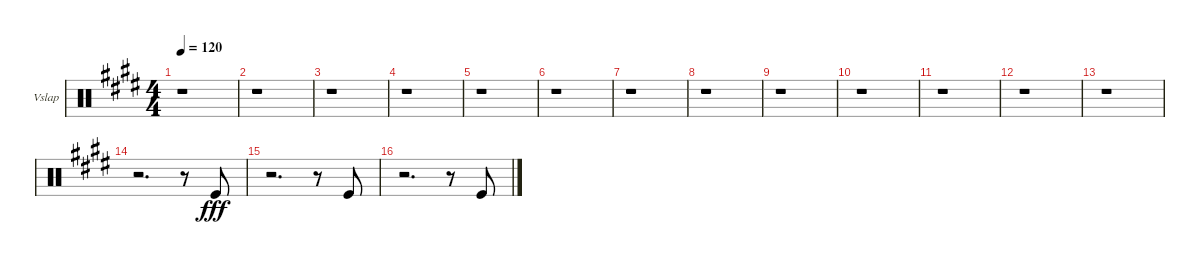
\defaultSystemsLayout 4
\bracketExtendMode groupsimilarinstruments
\firstSystemTrackNameOrientation horizontal
\otherSystemsTrackNameOrientation horizontal
\track ("Vibraslap" "Vslap") {instrument percussion}
\staff {score}
\articulation defaults
\ts (4 4)
\tempo 120
\clef neutral
\scale
0.333333
\ks e
r.1{dy fff} |
\scale
0.333333 r.1 |
\scale
0.333333 r.1 |
\scale
0.333333 r.1 |
\scale
0.333333 r.1 |
\scale
0.333333 r.1 |
\scale
0.333333 r.1 |
\scale
0.333333 r.1 |
\scale
0.333333 r.1 |
\scale
0.333333 r.1 |
\scale
0.333333 r.1 |
\scale
0.333333 r.1 |
\scale
0.333333 r.1 |
\scale
0.333333 r.2{d} r.8 "Kick (hit)".8 |
\scale
0.333333 r.2{d} r.8 "Kick (hit)".8 |
\scale
0.333333 r.2{d} r.8 "Kick (hit)".8
